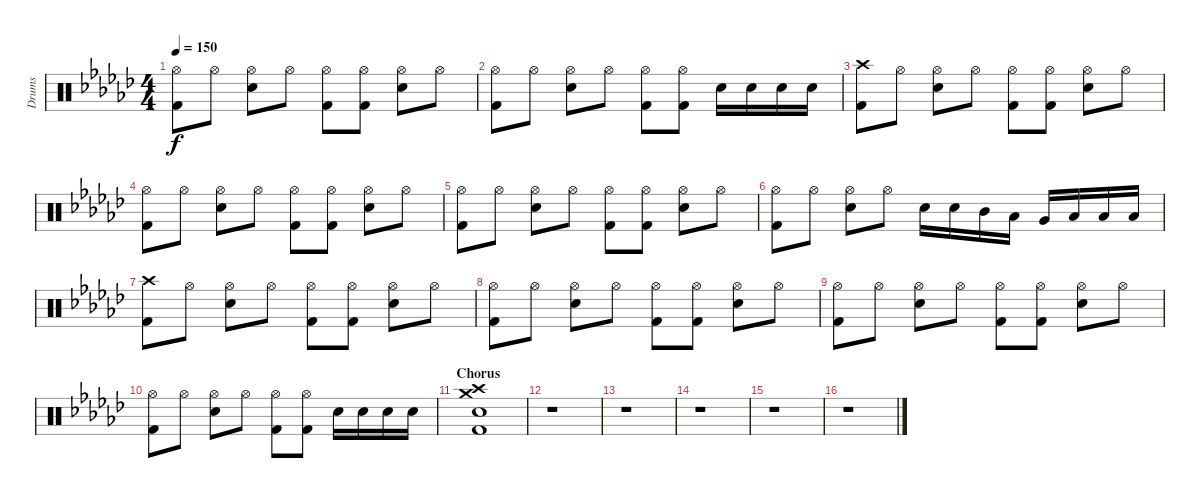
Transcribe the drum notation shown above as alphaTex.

\track ("Drums" "Drums") {instrument percussion}
\staff {score}
\articulation defaults
\ts (4 4)
\tempo 150
\clef neutral
\ks gb
("Hi-Hat (open)" "Kick (hit) 2").8{dy f} "Hi-Hat (open)".8 ("Hi-Hat (open)" "Electric Snare (hit)").8 "Hi-Hat (open)".8 ("Hi-Hat (open)" "Kick (hit) 2").8 ("Hi-Hat (open)" "Kick (hit) 2").8 ("Hi-Hat (open)" "Electric Snare (hit)").8 "Hi-Hat (open)".8 |
("Hi-Hat (open)" "Kick (hit) 2").8 "Hi-Hat (open)".8 ("Hi-Hat (open)" "Electric Snare (hit)").8 "Hi-Hat (open)".8 ("Hi-Hat (open)" "Kick (hit) 2").8 ("Hi-Hat (open)" "Kick (hit) 2").8 "Electric Snare (hit)".16 "Electric Snare (hit)".16 "Electric Snare (hit)".16 "Electric Snare (hit)".16 |
("Crash high (hit)" "Kick (hit) 2").8 "Hi-Hat (open)".8 ("Hi-Hat (open)" "Electric Snare (hit)").8 "Hi-Hat (open)".8 ("Hi-Hat (open)" "Kick (hit) 2").8 ("Hi-Hat (open)" "Kick (hit) 2").8 ("Hi-Hat (open)" "Electric Snare (hit)").8 "Hi-Hat (open)".8 |
("Hi-Hat (open)" "Kick (hit) 2").8 "Hi-Hat (open)".8 ("Hi-Hat (open)" "Electric Snare (hit)").8 "Hi-Hat (open)".8 ("Hi-Hat (open)" "Kick (hit) 2").8 ("Hi-Hat (open)" "Kick (hit) 2").8 ("Hi-Hat (open)" "Electric Snare (hit)").8 "Hi-Hat (open)".8 |
("Hi-Hat (open)" "Kick (hit) 2").8 "Hi-Hat (open)".8 ("Hi-Hat (open)" "Electric Snare (hit)").8 "Hi-Hat (open)".8 ("Hi-Hat (open)" "Kick (hit) 2").8 ("Hi-Hat (open)" "Kick (hit) 2").8 ("Hi-Hat (open)" "Electric Snare (hit)").8 "Hi-Hat (open)".8 |
("Hi-Hat (open)" "Kick (hit) 2").8 "Hi-Hat (open)".8 ("Hi-Hat (open)" "Electric Snare (hit)").8 "Hi-Hat (open)".8 "Electric Snare (hit)".16 "Electric Snare (hit)".16 "Mid Tom (hit)".16 "Low Tom (hit)".16 "Very Low Tom (hit)".16 "Low Floor Tom (hit)".16 "Low Floor Tom (hit)".16 "Low Floor Tom (hit)".16 |
("Crash high (hit)" "Kick (hit) 2").8 "Hi-Hat (open)".8 ("Hi-Hat (open)" "Electric Snare (hit)").8 "Hi-Hat (open)".8 ("Hi-Hat (open)" "Kick (hit) 2").8 ("Hi-Hat (open)" "Kick (hit) 2").8 ("Hi-Hat (open)" "Electric Snare (hit)").8 "Hi-Hat (open)".8 |
("Hi-Hat (open)" "Kick (hit) 2").8 "Hi-Hat (open)".8 ("Hi-Hat (open)" "Electric Snare (hit)").8 "Hi-Hat (open)".8 ("Hi-Hat (open)" "Kick (hit) 2").8 ("Hi-Hat (open)" "Kick (hit) 2").8 ("Hi-Hat (open)" "Electric Snare (hit)").8 "Hi-Hat (open)".8 |
("Hi-Hat (open)" "Kick (hit) 2").8 "Hi-Hat (open)".8 ("Hi-Hat (open)" "Electric Snare (hit)").8 "Hi-Hat (open)".8 ("Hi-Hat (open)" "Kick (hit) 2").8 ("Hi-Hat (open)" "Kick (hit) 2").8 ("Hi-Hat (open)" "Electric Snare (hit)").8 "Hi-Hat (open)".8 |
("Hi-Hat (open)" "Kick (hit) 2").8 "Hi-Hat (open)".8 ("Hi-Hat (open)" "Electric Snare (hit)").8 "Hi-Hat (open)".8 ("Hi-Hat (open)" "Kick (hit) 2").8 ("Hi-Hat (open)" "Kick (hit) 2").8 "Electric Snare (hit)".16 "Electric Snare (hit)".16 "Electric Snare (hit)".16 "Electric Snare (hit)".16 |
\section ("" "Chorus")
("Crash high (hit)" "Kick (hit) 2" "Electric Snare (hit)" "Crash medium (hit)").1 |
r.1 |
r.1 |
r.1 |
r.1 |
r.1
